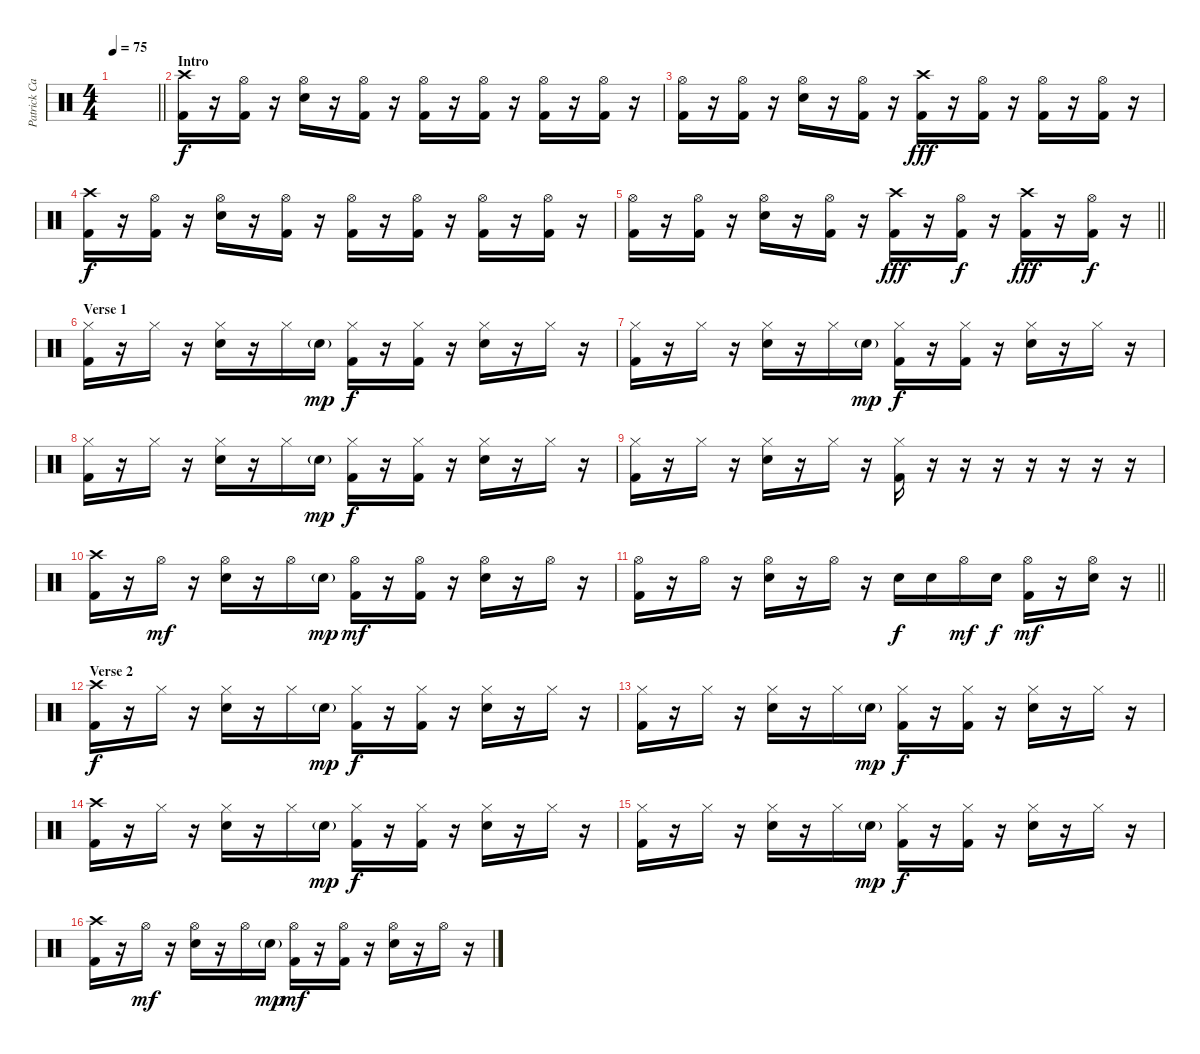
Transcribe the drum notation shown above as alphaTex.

\track ("Patrick Carney - Drums" "Patrick Ca") {instrument percussion}
\staff {score}
\articulation defaults
\ts (4 4)
\tempo 75
\clef neutral
\barLineRight lightlight
\ks c
|
\section ("" "Intro")
("Crash high (hit)" "Kick (hit) 2").16 r.16 ("Hi-Hat (open)" "Kick (hit) 2").16 r.16 ("Hi-Hat (open)" "Electric Snare (hit)").16 r.16 ("Hi-Hat (open)" "Kick (hit) 2").16 r.16 ("Hi-Hat (open)" "Kick (hit) 2").16 r.16 ("Hi-Hat (open)" "Kick (hit) 2").16 r.16 ("Hi-Hat (open)" "Kick (hit) 2").16 r.16 ("Hi-Hat (open)" "Kick (hit) 2").16 r.16 |
("Hi-Hat (open)" "Kick (hit) 2").16 r.16 ("Hi-Hat (open)" "Kick (hit) 2").16 r.16 ("Hi-Hat (open)" "Electric Snare (hit)").16 r.16 ("Hi-Hat (open)" "Kick (hit) 2").16 r.16 ("Crash high (hit)" "Kick (hit) 2").16{dy fff} r.16 ("Hi-Hat (open)" "Kick (hit) 2").16 r.16 ("Hi-Hat (open)" "Kick (hit) 2").16 r.16 ("Hi-Hat (open)" "Kick (hit) 2").16 r.16 |
("Crash high (hit)" "Kick (hit) 2").16{dy f} r.16 ("Hi-Hat (open)" "Kick (hit) 2").16 r.16 ("Hi-Hat (open)" "Electric Snare (hit)").16 r.16 ("Hi-Hat (open)" "Kick (hit) 2").16 r.16 ("Hi-Hat (open)" "Kick (hit) 2").16 r.16 ("Hi-Hat (open)" "Kick (hit) 2").16 r.16 ("Hi-Hat (open)" "Kick (hit) 2").16 r.16 ("Hi-Hat (open)" "Kick (hit) 2").16 r.16 |
\barLineRight lightlight
("Hi-Hat (open)" "Kick (hit) 2").16 r.16 ("Hi-Hat (open)" "Kick (hit) 2").16 r.16 ("Hi-Hat (open)" "Electric Snare (hit)").16 r.16 ("Hi-Hat (open)" "Kick (hit) 2").16 r.16 ("Crash high (hit)" "Kick (hit) 2").16{dy fff} r.16 ("Hi-Hat (open)" "Kick (hit) 2").16{dy f} r.16 ("Crash high (hit)" "Kick (hit) 2").16{dy fff} r.16 ("Hi-Hat (open)" "Kick (hit) 2").16{dy f} r.16 |
\section ("" "Verse 1")
("Hi-Hat (closed)" "Kick (hit) 2").16 r.16 "Hi-Hat (closed)".16 r.16 ("Hi-Hat (closed)" "Electric Snare (hit)").16 r.16 "Hi-Hat (closed)".16 "Electric Snare (hit)"{g}.16{dy mp} ("Hi-Hat (closed)" "Kick (hit) 2").16{dy f} r.16 ("Hi-Hat (closed)" "Kick (hit) 2").16 r.16 ("Hi-Hat (closed)" "Electric Snare (hit)").16 r.16 "Hi-Hat (closed)".16 r.16 |
("Hi-Hat (closed)" "Kick (hit) 2").16 r.16 "Hi-Hat (closed)".16 r.16 ("Hi-Hat (closed)" "Electric Snare (hit)").16 r.16 "Hi-Hat (closed)".16 "Electric Snare (hit)"{g}.16{dy mp} ("Hi-Hat (closed)" "Kick (hit) 2").16{dy f} r.16 ("Hi-Hat (closed)" "Kick (hit) 2").16 r.16 ("Hi-Hat (closed)" "Electric Snare (hit)").16 r.16 "Hi-Hat (closed)".16 r.16 |
("Hi-Hat (closed)" "Kick (hit) 2").16 r.16 "Hi-Hat (closed)".16 r.16 ("Hi-Hat (closed)" "Electric Snare (hit)").16 r.16 "Hi-Hat (closed)".16 "Electric Snare (hit)"{g}.16{dy mp} ("Hi-Hat (closed)" "Kick (hit) 2").16{dy f} r.16 ("Hi-Hat (closed)" "Kick (hit) 2").16 r.16 ("Hi-Hat (closed)" "Electric Snare (hit)").16 r.16 "Hi-Hat (closed)".16 r.16 |
("Hi-Hat (closed)" "Kick (hit) 2").16 r.16 "Hi-Hat (closed)".16 r.16 ("Hi-Hat (closed)" "Electric Snare (hit)").16 r.16 "Hi-Hat (closed)".16 r.16 ("Hi-Hat (closed)" "Kick (hit) 2").16 r.16 r.16 r.16 r.16 r.16 r.16 r.16 |
("Crash high (hit)" "Kick (hit) 2").16 r.16 "Hi-Hat (open)".16{dy mf} r.16 ("Hi-Hat (open)" "Electric Snare (hit)").16 r.16 "Hi-Hat (open)".16 "Electric Snare (hit)"{g}.16{dy mp} ("Hi-Hat (open)" "Kick (hit) 2").16{dy mf} r.16 ("Hi-Hat (open)" "Kick (hit) 2").16 r.16 ("Hi-Hat (open)" "Electric Snare (hit)").16 r.16 "Hi-Hat (open)".16 r.16 |
\barLineRight lightlight
("Hi-Hat (open)" "Kick (hit) 2").16 r.16 "Hi-Hat (open)".16 r.16 ("Hi-Hat (open)" "Electric Snare (hit)").16 r.16 "Hi-Hat (open)".16 r.16 "Electric Snare (hit)".16{dy f} "Electric Snare (hit)".16 "Hi-Hat (open)".16{dy mf} "Electric Snare (hit)".16{dy f} ("Hi-Hat (open)" "Kick (hit) 2").16{dy mf} r.16 ("Hi-Hat (open)" "Electric Snare (hit)").16 r.16 |
\section ("" "Verse 2")
("Crash high (hit)" "Kick (hit) 2").16{dy f} r.16 "Hi-Hat (closed)".16 r.16 ("Hi-Hat (closed)" "Electric Snare (hit)").16 r.16 "Hi-Hat (closed)".16 "Electric Snare (hit)"{g}.16{dy mp} ("Hi-Hat (closed)" "Kick (hit) 2").16{dy f} r.16 ("Hi-Hat (closed)" "Kick (hit) 2").16 r.16 ("Hi-Hat (closed)" "Electric Snare (hit)").16 r.16 "Hi-Hat (closed)".16 r.16 |
("Hi-Hat (closed)" "Kick (hit) 2").16 r.16 "Hi-Hat (closed)".16 r.16 ("Hi-Hat (closed)" "Electric Snare (hit)").16 r.16 "Hi-Hat (closed)".16 "Electric Snare (hit)"{g}.16{dy mp} ("Hi-Hat (closed)" "Kick (hit) 2").16{dy f} r.16 ("Hi-Hat (closed)" "Kick (hit) 2").16 r.16 ("Hi-Hat (closed)" "Electric Snare (hit)").16 r.16 "Hi-Hat (closed)".16 r.16 |
("Crash high (hit)" "Kick (hit) 2").16 r.16 "Hi-Hat (closed)".16 r.16 ("Hi-Hat (closed)" "Electric Snare (hit)").16 r.16 "Hi-Hat (closed)".16 "Electric Snare (hit)"{g}.16{dy mp} ("Hi-Hat (closed)" "Kick (hit) 2").16{dy f} r.16 ("Hi-Hat (closed)" "Kick (hit) 2").16 r.16 ("Hi-Hat (closed)" "Electric Snare (hit)").16 r.16 "Hi-Hat (closed)".16 r.16 |
("Hi-Hat (closed)" "Kick (hit) 2").16 r.16 "Hi-Hat (closed)".16 r.16 ("Hi-Hat (closed)" "Electric Snare (hit)").16 r.16 "Hi-Hat (closed)".16 "Electric Snare (hit)"{g}.16{dy mp} ("Hi-Hat (closed)" "Kick (hit) 2").16{dy f} r.16 ("Hi-Hat (closed)" "Kick (hit) 2").16 r.16 ("Hi-Hat (closed)" "Electric Snare (hit)").16 r.16 "Hi-Hat (closed)".16 r.16 |
("Crash high (hit)" "Kick (hit) 2").16 r.16 "Hi-Hat (open)".16{dy mf} r.16 ("Hi-Hat (open)" "Electric Snare (hit)").16 r.16 "Hi-Hat (open)".16 "Electric Snare (hit)"{g}.16{dy mp} ("Hi-Hat (open)" "Kick (hit) 2").16{dy mf} r.16 ("Hi-Hat (open)" "Kick (hit) 2").16 r.16 ("Hi-Hat (open)" "Electric Snare (hit)").16 r.16 "Hi-Hat (open)".16 r.16
